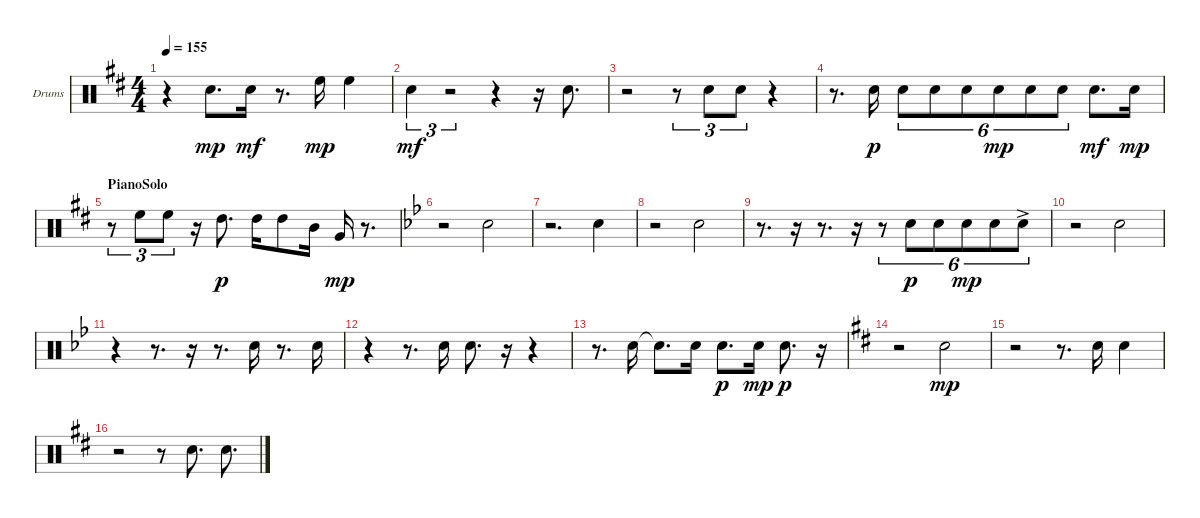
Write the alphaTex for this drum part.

\bracketExtendMode groupsimilarinstruments
\firstSystemTrackNameOrientation horizontal
\otherSystemsTrackNameOrientation horizontal
\track ("Drums" "Drums") {instrument percussion}
\staff {score}
\articulation defaults
\ts (4 4)
\tempo 155
\clef neutral
\ks d
r.4{dy mp} "Snare (hit) 2".8{d} "Snare (hit) 2".16{dy mf} r.8{d} "High Floor Tom (hit)".16{dy mp} "High Floor Tom (hit)".4 |
"Snare (hit) 2".4{tu (3 2) dy mf} r.2{tu (3 2)} r.4 r.16 "Snare (hit) 2".8{d} |
r.2 r.8{tu (3 2)} "Snare (hit) 2".8{tu (3 2)} "Snare (hit) 2".8{tu (3 2)} r.4 |
r.8{d} "Snare (hit) 2".16{dy p} "Snare (hit) 2".8{tu (6 4)} "Snare (hit) 2".8{tu (6 4)} "Snare (hit) 2".8{tu (6 4)} "Snare (hit) 2".8{tu (6 4) dy mp} "Snare (hit) 2".8{tu (6 4)} "Snare (hit) 2".8{tu (6 4)} "Snare (hit) 2".8{d dy mf} "Snare (hit) 2".16{dy mp} |
\section ("" "PianoSolo")
r.8{tu (3 2)} "High Floor Tom (hit)".8{tu (3 2)} "High Floor Tom (hit)".8{tu (3 2)} r.16 "High Tom (hit)".8{d dy p} "High Tom (hit)".16 "High Tom (hit)".8 "Mid Tom (hit)".16 "Very Low Tom (hit)".16{dy mp} r.8{d} |
\ks bb
r.2 "Snare (hit) 2".2 |
r.2{d} "Snare (hit) 2".4 |
r.2 "Snare (hit) 2".2 |
r.8{d} r.16 r.8{d} r.16 r.8{tu (6 4)} "Snare (hit) 2".8{tu (6 4) dy p} "Snare (hit) 2".8{tu (6 4)} "Snare (hit) 2".8{tu (6 4) dy mp} "Snare (hit) 2".8{tu (6 4)} "Snare (hit) 2"{ac}.8{tu (6 4)} |
r.2 "Snare (hit) 2".2 |
r.4 r.8{d} r.16 r.8{d} "Snare (hit) 2".16 r.8{d} "Snare (hit) 2".16 |
r.4 r.8{d} "Snare (hit) 2".16 "Snare (hit) 2".8{d} r.16 r.4 |
r.8{d} "Snare (hit) 2".16 "Snare (hit) 2"{t}.8{d} "Snare (hit) 2".16 "Snare (hit) 2".8{d dy p} "Snare (hit) 2".16{dy mp} "Snare (hit) 2".8{d dy p} r.16 |
\ks d
r.2 "Snare (hit) 2".2{dy mp} |
r.2 r.8{d} "Snare (hit) 2".16 "Snare (hit) 2".4 |
r.2 r.8 "Snare (hit) 2".8{d} "Snare (hit) 2".8{d}
